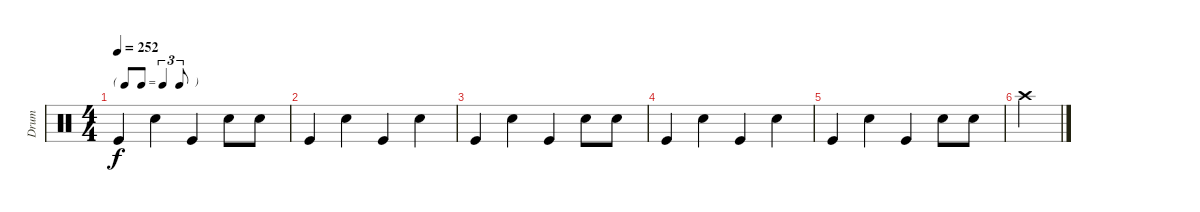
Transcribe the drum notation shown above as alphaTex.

\track ("Drum" "Drum") {instrument percussion}
\staff {score}
\articulation defaults
\ts (4 4)
\tf triplet8th
\tempo 252
\clef neutral
\ks c "Kick (hit)".4{dy f} "Snare (hit) 2".4 "Kick (hit)".4 "Snare (hit) 2".8 "Snare (hit) 2".8
|
"Kick (hit)".4 "Snare (hit) 2".4 "Kick (hit)".4 "Snare (hit) 2".4 |
"Kick (hit)".4 "Snare (hit) 2".4 "Kick (hit)".4 "Snare (hit) 2".8 "Snare (hit) 2".8 |
"Kick (hit)".4 "Snare (hit) 2".4 "Kick (hit)".4 "Snare (hit) 2".4 |
"Kick (hit)".4 "Snare (hit) 2".4 "Kick (hit)".4 "Snare (hit) 2".8 "Snare (hit) 2".8 |
"Crash high (hit)".4
